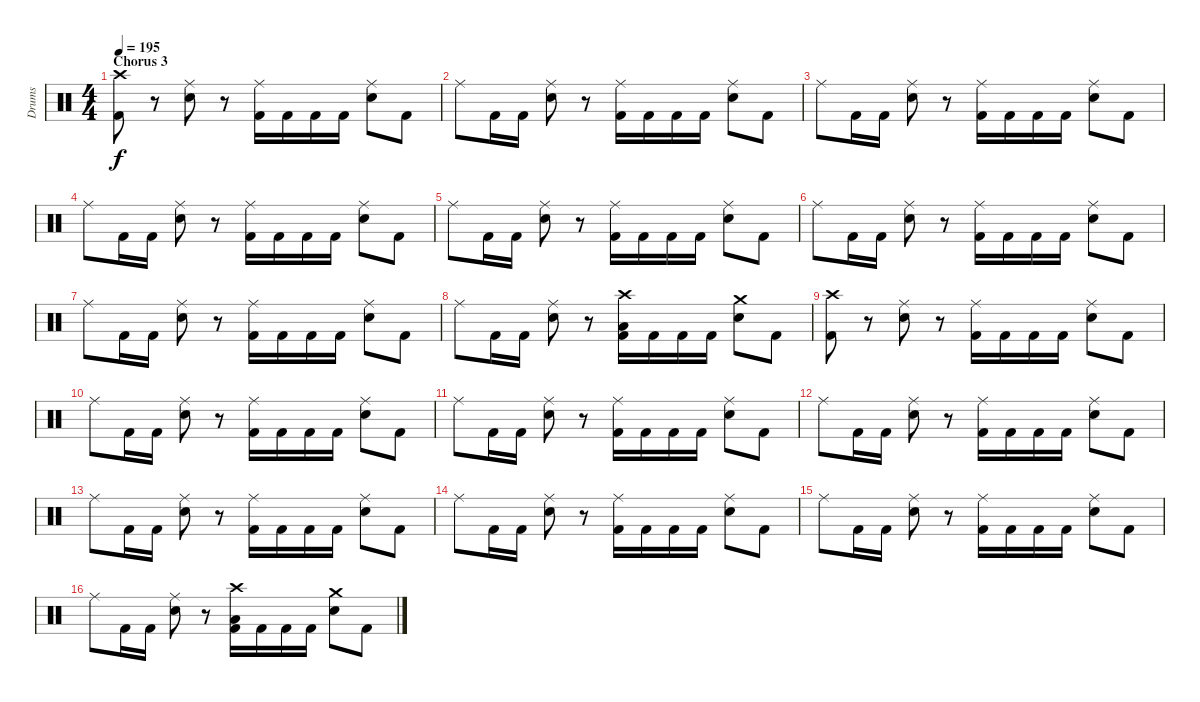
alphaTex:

\track ("Drums" "Drums") {instrument percussion}
\staff {score}
\articulation defaults
\ts (4 4)
\section ("" "Chorus 3")
\tempo 195
\clef neutral
\ks c
("Crash high (hit)" "Kick (hit) 2").8{dy f} r.8 ("Ride (middle)" "Snare (hit) 2").8 r.8 ("Ride (middle)" "Kick (hit) 2").16 "Kick (hit) 2".16 "Kick (hit) 2".16 "Kick (hit) 2".16 ("Ride (middle)" "Snare (hit) 2").8 "Kick (hit) 2".8 |
"Ride (middle)".8 "Kick (hit) 2".16 "Kick (hit) 2".16 ("Ride (middle)" "Snare (hit) 2").8 r.8 ("Ride (middle)" "Kick (hit) 2").16 "Kick (hit) 2".16 "Kick (hit) 2".16 "Kick (hit) 2".16 ("Ride (middle)" "Snare (hit) 2").8 "Kick (hit) 2".8 |
"Ride (middle)".8 "Kick (hit) 2".16 "Kick (hit) 2".16 ("Ride (middle)" "Snare (hit) 2").8 r.8 ("Ride (middle)" "Kick (hit) 2").16 "Kick (hit) 2".16 "Kick (hit) 2".16 "Kick (hit) 2".16 ("Ride (middle)" "Snare (hit) 2").8 "Kick (hit) 2".8 |
"Ride (middle)".8 "Kick (hit) 2".16 "Kick (hit) 2".16 ("Ride (middle)" "Snare (hit) 2").8 r.8 ("Ride (middle)" "Kick (hit) 2").16 "Kick (hit) 2".16 "Kick (hit) 2".16 "Kick (hit) 2".16 ("Ride (middle)" "Snare (hit) 2").8 "Kick (hit) 2".8 |
"Ride (middle)".8 "Kick (hit) 2".16 "Kick (hit) 2".16 ("Ride (middle)" "Snare (hit) 2").8 r.8 ("Ride (middle)" "Kick (hit) 2").16 "Kick (hit) 2".16 "Kick (hit) 2".16 "Kick (hit) 2".16 ("Ride (middle)" "Snare (hit) 2").8 "Kick (hit) 2".8 |
"Ride (middle)".8 "Kick (hit) 2".16 "Kick (hit) 2".16 ("Ride (middle)" "Snare (hit) 2").8 r.8 ("Ride (middle)" "Kick (hit) 2").16 "Kick (hit) 2".16 "Kick (hit) 2".16 "Kick (hit) 2".16 ("Ride (middle)" "Snare (hit) 2").8 "Kick (hit) 2".8 |
"Ride (middle)".8 "Kick (hit) 2".16 "Kick (hit) 2".16 ("Ride (middle)" "Snare (hit) 2").8 r.8 ("Ride (middle)" "Kick (hit) 2").16 "Kick (hit) 2".16 "Kick (hit) 2".16 "Kick (hit) 2".16 ("Ride (middle)" "Snare (hit) 2").8 "Kick (hit) 2".8 |
"Ride (middle)".8 "Kick (hit) 2".16 "Kick (hit) 2".16 ("Ride (middle)" "Snare (hit) 2").8 r.8 ("Crash high (hit)" "Low Floor Tom (hit)" "Kick (hit) 2").16 "Kick (hit) 2".16 "Kick (hit) 2".16 "Kick (hit) 2".16 ("Crash medium (hit)" "Snare (hit) 2").8 "Kick (hit) 2".8 |
("Crash high (hit)" "Kick (hit) 2").8 r.8 ("Ride (middle)" "Snare (hit) 2").8 r.8 ("Ride (middle)" "Kick (hit) 2").16 "Kick (hit) 2".16 "Kick (hit) 2".16 "Kick (hit) 2".16 ("Ride (middle)" "Snare (hit) 2").8 "Kick (hit) 2".8 |
"Ride (middle)".8 "Kick (hit) 2".16 "Kick (hit) 2".16 ("Ride (middle)" "Snare (hit) 2").8 r.8 ("Ride (middle)" "Kick (hit) 2").16 "Kick (hit) 2".16 "Kick (hit) 2".16 "Kick (hit) 2".16 ("Ride (middle)" "Snare (hit) 2").8 "Kick (hit) 2".8 |
"Ride (middle)".8 "Kick (hit) 2".16 "Kick (hit) 2".16 ("Ride (middle)" "Snare (hit) 2").8 r.8 ("Ride (middle)" "Kick (hit) 2").16 "Kick (hit) 2".16 "Kick (hit) 2".16 "Kick (hit) 2".16 ("Ride (middle)" "Snare (hit) 2").8 "Kick (hit) 2".8 |
"Ride (middle)".8 "Kick (hit) 2".16 "Kick (hit) 2".16 ("Ride (middle)" "Snare (hit) 2").8 r.8 ("Ride (middle)" "Kick (hit) 2").16 "Kick (hit) 2".16 "Kick (hit) 2".16 "Kick (hit) 2".16 ("Ride (middle)" "Snare (hit) 2").8 "Kick (hit) 2".8 |
"Ride (middle)".8 "Kick (hit) 2".16 "Kick (hit) 2".16 ("Ride (middle)" "Snare (hit) 2").8 r.8 ("Ride (middle)" "Kick (hit) 2").16 "Kick (hit) 2".16 "Kick (hit) 2".16 "Kick (hit) 2".16 ("Ride (middle)" "Snare (hit) 2").8 "Kick (hit) 2".8 |
"Ride (middle)".8 "Kick (hit) 2".16 "Kick (hit) 2".16 ("Ride (middle)" "Snare (hit) 2").8 r.8 ("Ride (middle)" "Kick (hit) 2").16 "Kick (hit) 2".16 "Kick (hit) 2".16 "Kick (hit) 2".16 ("Ride (middle)" "Snare (hit) 2").8 "Kick (hit) 2".8 |
"Ride (middle)".8 "Kick (hit) 2".16 "Kick (hit) 2".16 ("Ride (middle)" "Snare (hit) 2").8 r.8 ("Ride (middle)" "Kick (hit) 2").16 "Kick (hit) 2".16 "Kick (hit) 2".16 "Kick (hit) 2".16 ("Ride (middle)" "Snare (hit) 2").8 "Kick (hit) 2".8 |
"Ride (middle)".8 "Kick (hit) 2".16 "Kick (hit) 2".16 ("Ride (middle)" "Snare (hit) 2").8 r.8 ("Crash high (hit)" "Low Floor Tom (hit)" "Kick (hit) 2").16 "Kick (hit) 2".16 "Kick (hit) 2".16 "Kick (hit) 2".16 ("Crash medium (hit)" "Snare (hit) 2").8 "Kick (hit) 2".8
